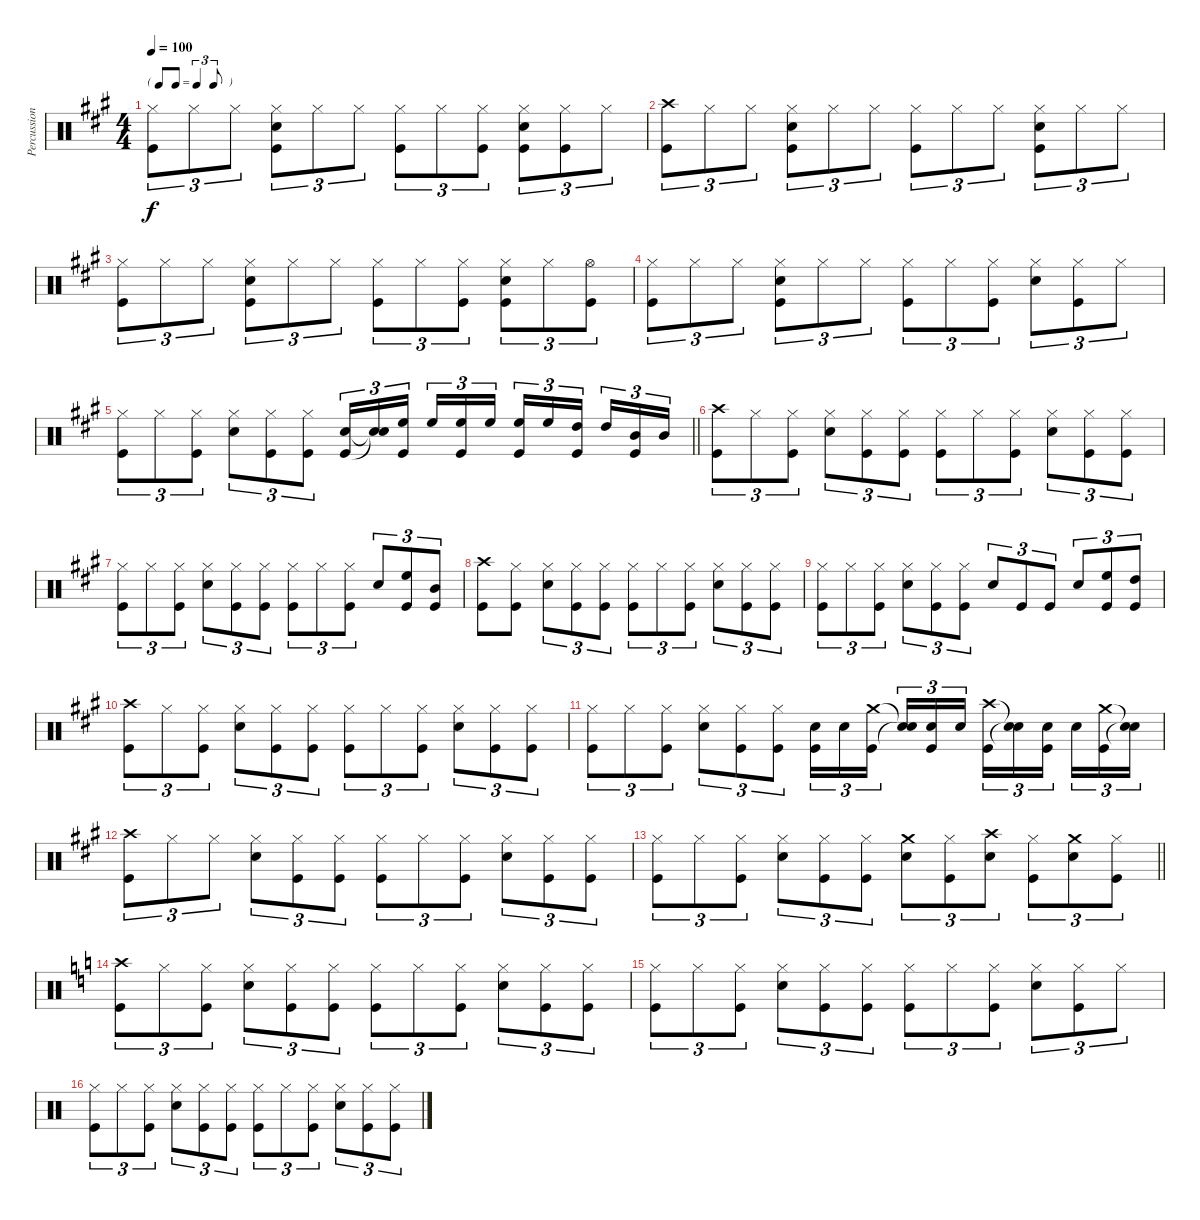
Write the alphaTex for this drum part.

\track ("Percussions" "Percussion") {instrument percussion}
\staff {score}
\articulation defaults
\ts (4 4)
\tf triplet8th
\tempo 100
\clef neutral
\ks f#minor
("Hi-Hat (closed)" "Kick (hit)").8{tu (3 2) dy f} "Hi-Hat (closed)".8{tu (3 2)} "Hi-Hat (closed)".8{tu (3 2)} ("Hi-Hat (closed)" "Snare (hit) 2" "Kick (hit)").8{tu (3 2)} "Hi-Hat (closed)".8{tu (3 2)} "Hi-Hat (closed)".8{tu (3 2)} ("Hi-Hat (closed)" "Kick (hit)").8{tu (3 2)} "Hi-Hat (closed)".8{tu (3 2)} ("Hi-Hat (closed)" "Kick (hit)").8{tu (3 2)} ("Hi-Hat (closed)" "Snare (hit) 2" "Kick (hit)").8{tu (3 2)} ("Hi-Hat (closed)" "Kick (hit)").8{tu (3 2)} "Hi-Hat (closed)".8{tu (3 2)} |
("Crash high (hit)" "Kick (hit)").8{tu (3 2)} "Hi-Hat (closed)".8{tu (3 2)} "Hi-Hat (closed)".8{tu (3 2)} ("Hi-Hat (closed)" "Snare (hit) 2" "Kick (hit)").8{tu (3 2)} "Hi-Hat (closed)".8{tu (3 2)} "Hi-Hat (closed)".8{tu (3 2)} ("Hi-Hat (closed)" "Kick (hit)").8{tu (3 2)} "Hi-Hat (closed)".8{tu (3 2)} "Hi-Hat (closed)".8{tu (3 2)} ("Hi-Hat (closed)" "Snare (hit) 2" "Kick (hit)").8{tu (3 2)} "Hi-Hat (closed)".8{tu (3 2)} "Hi-Hat (closed)".8{tu (3 2)} |
("Hi-Hat (closed)" "Kick (hit)").8{tu (3 2)} "Hi-Hat (closed)".8{tu (3 2)} "Hi-Hat (closed)".8{tu (3 2)} ("Hi-Hat (closed)" "Snare (hit) 2" "Kick (hit)").8{tu (3 2)} "Hi-Hat (closed)".8{tu (3 2)} "Hi-Hat (closed)".8{tu (3 2)} ("Hi-Hat (closed)" "Kick (hit)").8{tu (3 2)} "Hi-Hat (closed)".8{tu (3 2)} ("Hi-Hat (closed)" "Kick (hit)").8{tu (3 2)} ("Hi-Hat (closed)" "Snare (hit) 2" "Kick (hit)").8{tu (3 2)} "Hi-Hat (closed)".8{tu (3 2)} ("Hi-Hat (open)" "Kick (hit)").8{tu (3 2)} |
("Hi-Hat (closed)" "Kick (hit)").8{tu (3 2)} "Hi-Hat (closed)".8{tu (3 2)} "Hi-Hat (closed)".8{tu (3 2)} ("Hi-Hat (closed)" "Snare (hit) 2" "Kick (hit)").8{tu (3 2)} "Hi-Hat (closed)".8{tu (3 2)} "Hi-Hat (closed)".8{tu (3 2)} ("Hi-Hat (closed)" "Kick (hit)").8{tu (3 2)} "Hi-Hat (closed)".8{tu (3 2)} ("Hi-Hat (closed)" "Kick (hit)").8{tu (3 2)} ("Hi-Hat (closed)" "Snare (hit) 2").8{tu (3 2)} ("Hi-Hat (closed)" "Kick (hit)").8{tu (3 2)} "Hi-Hat (closed)".8{tu (3 2)} |
\barLineRight lightlight
("Hi-Hat (closed)" "Kick (hit)").8{tu (3 2)} "Hi-Hat (closed)".8{tu (3 2)} ("Hi-Hat (closed)" "Kick (hit)").8{tu (3 2)} ("Hi-Hat (closed)" "Snare (hit) 2").8{tu (3 2)} ("Hi-Hat (closed)" "Kick (hit)").8{tu (3 2)} ("Hi-Hat (closed)" "Kick (hit)").8{tu (3 2)} ("Electric Snare (hit)" "Kick (hit)").16{tu (3 2)} ("Snare (hit)"{t} "Snare (hit)"{t}).16{tu (3 2)} ("High Floor Tom (hit)" "Kick (hit)").16{tu (3 2) beam splitsecondary} "High Floor Tom (hit)".16{tu (3 2)} ("High Floor Tom (hit)" "Kick (hit)").16{tu (3 2)} "High Floor Tom (hit)".16{tu (3 2)} ("High Floor Tom (hit)" "Kick (hit)").16{tu (3 2)} "High Floor Tom (hit)".16{tu (3 2)} ("High Tom (hit)" "Kick (hit)").16{tu (3 2) beam splitsecondary} "High Tom (hit)".16{tu (3 2)} ("Mid Tom (hit)" "Kick (hit)").16{tu (3 2)} "Mid Tom (hit)".16{tu (3 2)} |
("Crash high (hit)" "Kick (hit)").8{tu (3 2)} "Hi-Hat (closed)".8{tu (3 2)} ("Hi-Hat (closed)" "Kick (hit)").8{tu (3 2)} ("Hi-Hat (closed)" "Snare (hit) 2").8{tu (3 2)} ("Hi-Hat (closed)" "Kick (hit)").8{tu (3 2)} ("Hi-Hat (closed)" "Kick (hit)").8{tu (3 2)} ("Hi-Hat (closed)" "Kick (hit)").8{tu (3 2)} "Hi-Hat (closed)".8{tu (3 2)} ("Hi-Hat (closed)" "Kick (hit)").8{tu (3 2)} ("Hi-Hat (closed)" "Snare (hit) 2").8{tu (3 2)} ("Hi-Hat (closed)" "Kick (hit)").8{tu (3 2)} ("Hi-Hat (closed)" "Kick (hit)").8{tu (3 2)} |
("Hi-Hat (closed)" "Kick (hit)").8{tu (3 2)} "Hi-Hat (closed)".8{tu (3 2)} ("Hi-Hat (closed)" "Kick (hit)").8{tu (3 2)} ("Hi-Hat (closed)" "Snare (hit) 2").8{tu (3 2)} ("Hi-Hat (closed)" "Kick (hit)").8{tu (3 2)} ("Hi-Hat (closed)" "Kick (hit)").8{tu (3 2)} ("Hi-Hat (closed)" "Kick (hit)").8{tu (3 2)} "Hi-Hat (closed)".8{tu (3 2)} ("Hi-Hat (closed)" "Kick (hit)").8{tu (3 2)} "Snare (hit) 2".8{tu (3 2)} ("High Floor Tom (hit)" "Kick (hit)").8{tu (3 2)} ("Mid Tom (hit)" "Kick (hit)").8{tu (3 2)} |
("Crash high (hit)" "Kick (hit)").8 ("Hi-Hat (closed)" "Kick (hit)").8 ("Hi-Hat (closed)" "Snare (hit) 2").8{tu (3 2)} ("Hi-Hat (closed)" "Kick (hit)").8{tu (3 2)} ("Hi-Hat (closed)" "Kick (hit)").8{tu (3 2)} ("Hi-Hat (closed)" "Kick (hit)").8{tu (3 2)} "Hi-Hat (closed)".8{tu (3 2)} ("Hi-Hat (closed)" "Kick (hit)").8{tu (3 2)} ("Hi-Hat (closed)" "Snare (hit) 2").8{tu (3 2)} ("Hi-Hat (closed)" "Kick (hit)").8{tu (3 2)} ("Hi-Hat (closed)" "Kick (hit)").8{tu (3 2)} |
("Hi-Hat (closed)" "Kick (hit)").8{tu (3 2)} "Hi-Hat (closed)".8{tu (3 2)} ("Hi-Hat (closed)" "Kick (hit)").8{tu (3 2)} ("Hi-Hat (closed)" "Snare (hit) 2").8{tu (3 2)} ("Hi-Hat (closed)" "Kick (hit)").8{tu (3 2)} ("Hi-Hat (closed)" "Kick (hit)").8{tu (3 2)} "Electric Snare (hit)".8{tu (3 2)} "Kick (hit)".8{tu (3 2)} "Kick (hit)".8{tu (3 2)} "Snare (hit) 2".8{tu (3 2)} ("High Floor Tom (hit)" "Kick (hit)").8{tu (3 2)} ("High Tom (hit)" "Kick (hit)").8{tu (3 2)} |
("Crash high (hit)" "Kick (hit)").8{tu (3 2)} "Hi-Hat (closed)".8{tu (3 2)} ("Hi-Hat (closed)" "Kick (hit)").8{tu (3 2)} ("Hi-Hat (closed)" "Snare (hit) 2").8{tu (3 2)} ("Hi-Hat (closed)" "Kick (hit)").8{tu (3 2)} ("Hi-Hat (closed)" "Kick (hit)").8{tu (3 2)} ("Hi-Hat (closed)" "Kick (hit)").8{tu (3 2)} "Hi-Hat (closed)".8{tu (3 2)} ("Hi-Hat (closed)" "Kick (hit)").8{tu (3 2)} ("Hi-Hat (closed)" "Snare (hit) 2").8{tu (3 2)} ("Hi-Hat (closed)" "Kick (hit)").8{tu (3 2)} ("Hi-Hat (closed)" "Kick (hit)").8{tu (3 2)} |
("Hi-Hat (closed)" "Kick (hit)").8{tu (3 2)} "Hi-Hat (closed)".8{tu (3 2)} ("Hi-Hat (closed)" "Kick (hit)").8{tu (3 2)} ("Hi-Hat (closed)" "Snare (hit) 2").8{tu (3 2)} ("Hi-Hat (closed)" "Kick (hit)").8{tu (3 2)} ("Hi-Hat (closed)" "Kick (hit)").8{tu (3 2)} ("Electric Snare (hit)" "Kick (hit)").16{tu (3 2)} "Electric Snare (hit)".16{tu (3 2)} ("Crash medium (hit)" "Kick (hit)").16{tu (3 2) beam splitsecondary} ("Snare (hit)"{t} "Snare (hit)"{t}).16{tu (3 2)} ("Electric Snare (hit)" "Kick (hit)").16{tu (3 2)} "Electric Snare (hit)".16{tu (3 2)} ("Crash high (hit)" "Kick (hit)").16{tu (3 2)} ("Snare (hit)"{t} "Snare (hit)"{t}).16{tu (3 2)} ("Electric Snare (hit)" "Kick (hit)").16{tu (3 2) beam splitsecondary} "Electric Snare (hit)".16{tu (3 2)} ("Crash medium (hit)" "Kick (hit)").16{tu (3 2)} ("Snare (hit)"{t} "Snare (hit)"{t}).16{tu (3 2)} |
("Crash high (hit)" "Kick (hit)").8{tu (3 2)} "Hi-Hat (closed)".8{tu (3 2)} "Hi-Hat (closed)".8{tu (3 2)} ("Hi-Hat (closed)" "Snare (hit) 2").8{tu (3 2)} ("Hi-Hat (closed)" "Kick (hit)").8{tu (3 2)} ("Hi-Hat (closed)" "Kick (hit)").8{tu (3 2)} ("Hi-Hat (closed)" "Kick (hit)").8{tu (3 2)} "Hi-Hat (closed)".8{tu (3 2)} ("Hi-Hat (closed)" "Kick (hit)").8{tu (3 2)} ("Hi-Hat (closed)" "Snare (hit) 2").8{tu (3 2)} ("Hi-Hat (closed)" "Kick (hit)").8{tu (3 2)} ("Hi-Hat (closed)" "Kick (hit)").8{tu (3 2)} |
\barLineRight lightlight
("Hi-Hat (closed)" "Kick (hit)").8{tu (3 2)} "Hi-Hat (closed)".8{tu (3 2)} ("Hi-Hat (closed)" "Kick (hit)").8{tu (3 2)} ("Hi-Hat (closed)" "Snare (hit) 2").8{tu (3 2)} ("Hi-Hat (closed)" "Kick (hit)").8{tu (3 2)} ("Hi-Hat (closed)" "Kick (hit)").8{tu (3 2)} ("Crash medium (hit)" "Snare (hit) 2").8{tu (3 2)} ("Hi-Hat (closed)" "Kick (hit)").8{tu (3 2)} ("Crash high (hit)" "Snare (hit) 2").8{tu (3 2)} ("Hi-Hat (closed)" "Kick (hit)").8{tu (3 2)} ("Crash medium (hit)" "Snare (hit) 2").8{tu (3 2)} ("Hi-Hat (closed)" "Kick (hit)").8{tu (3 2)} |
\ks c
("Crash high (hit)" "Kick (hit)").8{tu (3 2)} "Hi-Hat (closed)".8{tu (3 2)} ("Hi-Hat (closed)" "Kick (hit)").8{tu (3 2)} ("Hi-Hat (closed)" "Snare (hit) 2").8{tu (3 2)} ("Hi-Hat (closed)" "Kick (hit)").8{tu (3 2)} ("Hi-Hat (closed)" "Kick (hit)").8{tu (3 2)} ("Hi-Hat (closed)" "Kick (hit)").8{tu (3 2)} "Hi-Hat (closed)".8{tu (3 2)} ("Hi-Hat (closed)" "Kick (hit)").8{tu (3 2)} ("Hi-Hat (closed)" "Snare (hit) 2").8{tu (3 2)} ("Hi-Hat (closed)" "Kick (hit)").8{tu (3 2)} ("Hi-Hat (closed)" "Kick (hit)").8{tu (3 2)} |
("Hi-Hat (closed)" "Kick (hit)").8{tu (3 2)} "Hi-Hat (closed)".8{tu (3 2)} ("Hi-Hat (closed)" "Kick (hit)").8{tu (3 2)} ("Hi-Hat (closed)" "Snare (hit) 2").8{tu (3 2)} ("Hi-Hat (closed)" "Kick (hit)").8{tu (3 2)} ("Hi-Hat (closed)" "Kick (hit)").8{tu (3 2)} ("Hi-Hat (closed)" "Kick (hit)").8{tu (3 2)} "Hi-Hat (closed)".8{tu (3 2)} ("Hi-Hat (closed)" "Kick (hit)").8{tu (3 2)} ("Hi-Hat (closed)" "Snare (hit) 2").8{tu (3 2)} ("Hi-Hat (closed)" "Kick (hit)").8{tu (3 2)} "Hi-Hat (closed)".8{tu (3 2)} |
("Hi-Hat (closed)" "Kick (hit)").8{tu (3 2)} "Hi-Hat (closed)".8{tu (3 2)} ("Hi-Hat (closed)" "Kick (hit)").8{tu (3 2)} ("Hi-Hat (closed)" "Snare (hit) 2").8{tu (3 2)} ("Hi-Hat (closed)" "Kick (hit)").8{tu (3 2)} ("Hi-Hat (closed)" "Kick (hit)").8{tu (3 2)} ("Hi-Hat (closed)" "Kick (hit)").8{tu (3 2)} "Hi-Hat (closed)".8{tu (3 2)} ("Hi-Hat (closed)" "Kick (hit)").8{tu (3 2)} ("Hi-Hat (closed)" "Snare (hit) 2").8{tu (3 2)} ("Hi-Hat (closed)" "Kick (hit)").8{tu (3 2)} ("Hi-Hat (closed)" "Kick (hit)").8{tu (3 2)}
